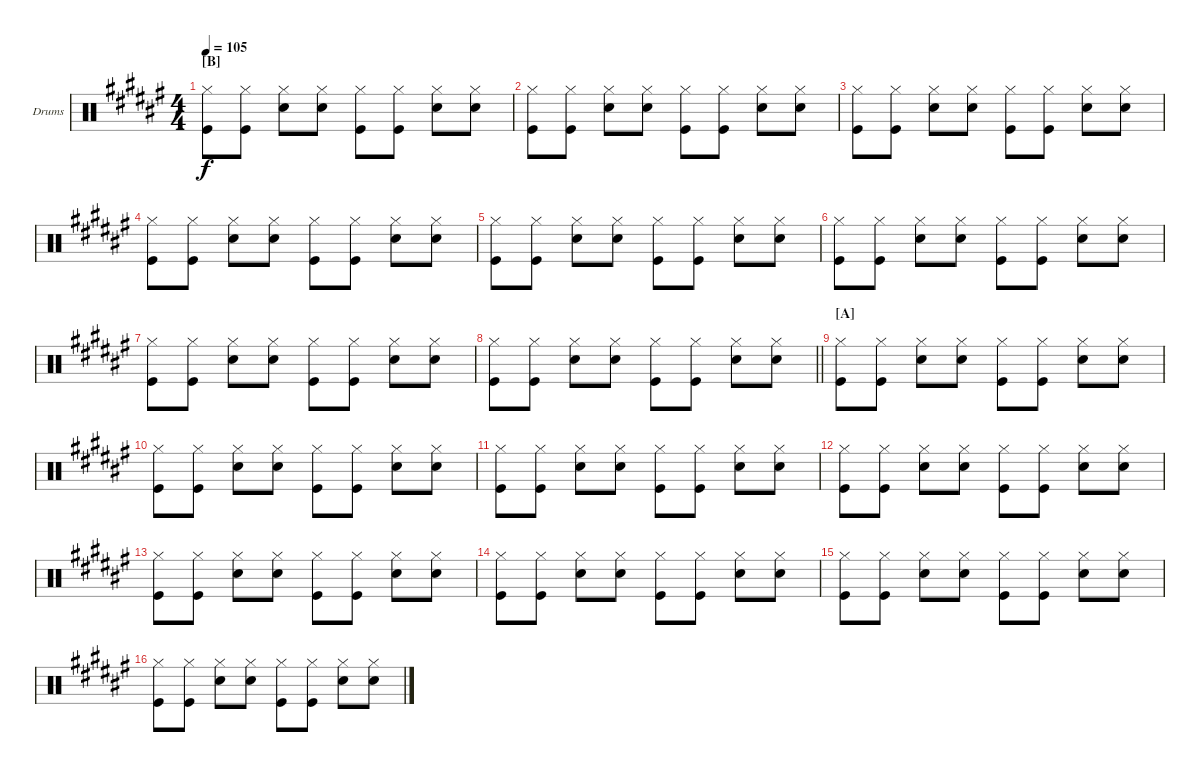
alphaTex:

\bracketExtendMode groupsimilarinstruments
\firstSystemTrackNameOrientation horizontal
\otherSystemsTrackNameOrientation horizontal
\track ("Fab Moretti" "Drums") {instrument percussion}
\staff {score}
\articulation defaults
\ts (4 4)
\section ("B" "")
\tempo 105
\clef neutral
\ks f#
("Hi-Hat (closed)" "Kick (hit)").8{dy f} ("Hi-Hat (closed)" "Kick (hit)").8 ("Hi-Hat (closed)" "Snare (hit) 2").8 ("Hi-Hat (closed)" "Snare (hit) 2").8 ("Hi-Hat (closed)" "Kick (hit)").8 ("Hi-Hat (closed)" "Kick (hit)").8 ("Hi-Hat (closed)" "Snare (hit) 2").8 ("Hi-Hat (closed)" "Snare (hit) 2").8 |
("Hi-Hat (closed)" "Kick (hit)").8 ("Hi-Hat (closed)" "Kick (hit)").8 ("Hi-Hat (closed)" "Snare (hit) 2").8 ("Hi-Hat (closed)" "Snare (hit) 2").8 ("Hi-Hat (closed)" "Kick (hit)").8 ("Hi-Hat (closed)" "Kick (hit)").8 ("Hi-Hat (closed)" "Snare (hit) 2").8 ("Hi-Hat (closed)" "Snare (hit) 2").8 |
("Hi-Hat (closed)" "Kick (hit)").8 ("Hi-Hat (closed)" "Kick (hit)").8 ("Hi-Hat (closed)" "Snare (hit) 2").8 ("Hi-Hat (closed)" "Snare (hit) 2").8 ("Hi-Hat (closed)" "Kick (hit)").8 ("Hi-Hat (closed)" "Kick (hit)").8 ("Hi-Hat (closed)" "Snare (hit) 2").8 ("Hi-Hat (closed)" "Snare (hit) 2").8 |
("Hi-Hat (closed)" "Kick (hit)").8 ("Hi-Hat (closed)" "Kick (hit)").8 ("Hi-Hat (closed)" "Snare (hit) 2").8 ("Hi-Hat (closed)" "Snare (hit) 2").8 ("Hi-Hat (closed)" "Kick (hit)").8 ("Hi-Hat (closed)" "Kick (hit)").8 ("Hi-Hat (closed)" "Snare (hit) 2").8 ("Hi-Hat (closed)" "Snare (hit) 2").8 |
("Hi-Hat (closed)" "Kick (hit)").8 ("Hi-Hat (closed)" "Kick (hit)").8 ("Hi-Hat (closed)" "Snare (hit) 2").8 ("Hi-Hat (closed)" "Snare (hit) 2").8 ("Hi-Hat (closed)" "Kick (hit)").8 ("Hi-Hat (closed)" "Kick (hit)").8 ("Hi-Hat (closed)" "Snare (hit) 2").8 ("Hi-Hat (closed)" "Snare (hit) 2").8 |
("Hi-Hat (closed)" "Kick (hit)").8 ("Hi-Hat (closed)" "Kick (hit)").8 ("Hi-Hat (closed)" "Snare (hit) 2").8 ("Hi-Hat (closed)" "Snare (hit) 2").8 ("Hi-Hat (closed)" "Kick (hit)").8 ("Hi-Hat (closed)" "Kick (hit)").8 ("Hi-Hat (closed)" "Snare (hit) 2").8 ("Hi-Hat (closed)" "Snare (hit) 2").8 |
("Hi-Hat (closed)" "Kick (hit)").8 ("Hi-Hat (closed)" "Kick (hit)").8 ("Hi-Hat (closed)" "Snare (hit) 2").8 ("Hi-Hat (closed)" "Snare (hit) 2").8 ("Hi-Hat (closed)" "Kick (hit)").8 ("Hi-Hat (closed)" "Kick (hit)").8 ("Hi-Hat (closed)" "Snare (hit) 2").8 ("Hi-Hat (closed)" "Snare (hit) 2").8 |
\barLineRight lightlight
("Hi-Hat (closed)" "Kick (hit)").8 ("Hi-Hat (closed)" "Kick (hit)").8 ("Hi-Hat (closed)" "Snare (hit) 2").8 ("Hi-Hat (closed)" "Snare (hit) 2").8 ("Hi-Hat (closed)" "Kick (hit)").8 ("Hi-Hat (closed)" "Kick (hit)").8 ("Hi-Hat (closed)" "Snare (hit) 2").8 ("Hi-Hat (closed)" "Snare (hit) 2").8 |
\section ("A" "")
("Hi-Hat (closed)" "Kick (hit)").8 ("Hi-Hat (closed)" "Kick (hit)").8 ("Hi-Hat (closed)" "Snare (hit) 2").8 ("Hi-Hat (closed)" "Snare (hit) 2").8 ("Hi-Hat (closed)" "Kick (hit)").8 ("Hi-Hat (closed)" "Kick (hit)").8 ("Hi-Hat (closed)" "Snare (hit) 2").8 ("Hi-Hat (closed)" "Snare (hit) 2").8 |
("Hi-Hat (closed)" "Kick (hit)").8 ("Hi-Hat (closed)" "Kick (hit)").8 ("Hi-Hat (closed)" "Snare (hit) 2").8 ("Hi-Hat (closed)" "Snare (hit) 2").8 ("Hi-Hat (closed)" "Kick (hit)").8 ("Hi-Hat (closed)" "Kick (hit)").8 ("Hi-Hat (closed)" "Snare (hit) 2").8 ("Hi-Hat (closed)" "Snare (hit) 2").8 |
("Hi-Hat (closed)" "Kick (hit)").8 ("Hi-Hat (closed)" "Kick (hit)").8 ("Hi-Hat (closed)" "Snare (hit) 2").8 ("Hi-Hat (closed)" "Snare (hit) 2").8 ("Hi-Hat (closed)" "Kick (hit)").8 ("Hi-Hat (closed)" "Kick (hit)").8 ("Hi-Hat (closed)" "Snare (hit) 2").8 ("Hi-Hat (closed)" "Snare (hit) 2").8 |
("Hi-Hat (closed)" "Kick (hit)").8 ("Hi-Hat (closed)" "Kick (hit)").8 ("Hi-Hat (closed)" "Snare (hit) 2").8 ("Hi-Hat (closed)" "Snare (hit) 2").8 ("Hi-Hat (closed)" "Kick (hit)").8 ("Hi-Hat (closed)" "Kick (hit)").8 ("Hi-Hat (closed)" "Snare (hit) 2").8 ("Hi-Hat (closed)" "Snare (hit) 2").8 |
("Hi-Hat (closed)" "Kick (hit)").8 ("Hi-Hat (closed)" "Kick (hit)").8 ("Hi-Hat (closed)" "Snare (hit) 2").8 ("Hi-Hat (closed)" "Snare (hit) 2").8 ("Hi-Hat (closed)" "Kick (hit)").8 ("Hi-Hat (closed)" "Kick (hit)").8 ("Hi-Hat (closed)" "Snare (hit) 2").8 ("Hi-Hat (closed)" "Snare (hit) 2").8 |
("Hi-Hat (closed)" "Kick (hit)").8 ("Hi-Hat (closed)" "Kick (hit)").8 ("Hi-Hat (closed)" "Snare (hit) 2").8 ("Hi-Hat (closed)" "Snare (hit) 2").8 ("Hi-Hat (closed)" "Kick (hit)").8 ("Hi-Hat (closed)" "Kick (hit)").8 ("Hi-Hat (closed)" "Snare (hit) 2").8 ("Hi-Hat (closed)" "Snare (hit) 2").8 |
("Hi-Hat (closed)" "Kick (hit)").8 ("Hi-Hat (closed)" "Kick (hit)").8 ("Hi-Hat (closed)" "Snare (hit) 2").8 ("Hi-Hat (closed)" "Snare (hit) 2").8 ("Hi-Hat (closed)" "Kick (hit)").8 ("Hi-Hat (closed)" "Kick (hit)").8 ("Hi-Hat (closed)" "Snare (hit) 2").8 ("Hi-Hat (closed)" "Snare (hit) 2").8 |
("Hi-Hat (closed)" "Kick (hit)").8 ("Hi-Hat (closed)" "Kick (hit)").8 ("Hi-Hat (closed)" "Snare (hit) 2").8 ("Hi-Hat (closed)" "Snare (hit) 2").8 ("Hi-Hat (closed)" "Kick (hit)").8 ("Hi-Hat (closed)" "Kick (hit)").8 ("Hi-Hat (closed)" "Snare (hit) 2").8 ("Hi-Hat (closed)" "Snare (hit) 2").8
